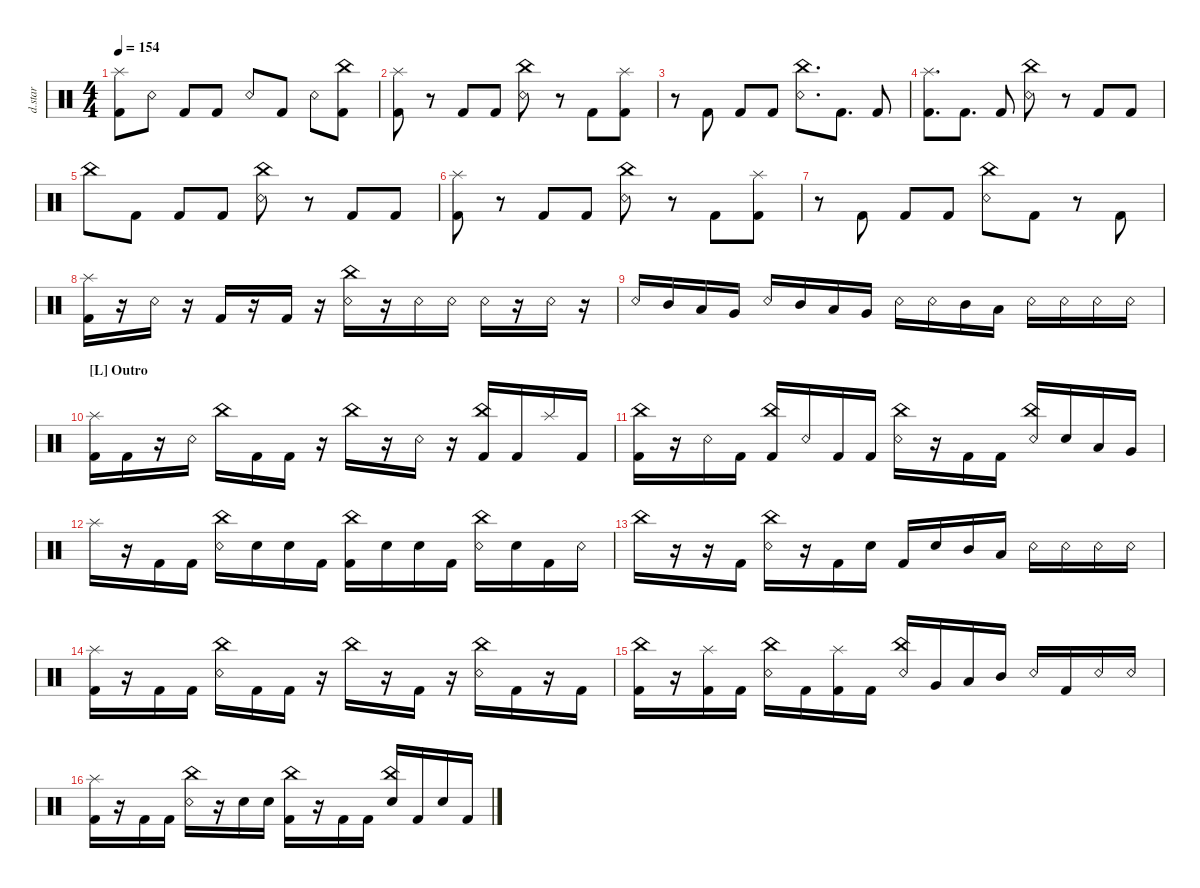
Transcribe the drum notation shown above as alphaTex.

\defaultSystemsLayout 4
\hideDynamics
\bracketExtendMode nobrackets
\otherSystemsTrackNameOrientation horizontal
\track ("Drumkit Star" "d.star") {instrument percussion}
\staff {score}
\articulation defaults
\ts (4 4)
\tempo 154
\clef neutral
\ks c
("Kick (hit) 2" "Splash (hit)").8{dy ff beam Down} "Snare (rim shot)".8{beam Down} "Kick (hit) 2".8{beam Up} "Kick (hit) 2".8{beam Up} "Snare (rim shot)".8{beam Up} "Kick (hit) 2".8{beam Up} "Snare (rim shot)".8{beam Down} ("Kick (hit) 2" "China (hit)").8{beam Down} |
("Kick (hit) 2" "Splash (hit)").8{beam Down} r.8{beam Down} "Kick (hit) 2".8{beam Up} "Kick (hit) 2".8{beam Up} ("Snare (rim shot)" "China (hit)").8{beam Down} r.8{beam Down} "Kick (hit) 2".8{beam Down} ("Kick (hit) 2" "Splash (hit)").8{beam Down} |
r.8{beam Down} "Kick (hit) 2".8{beam Up} "Kick (hit) 2".8{beam Up} "Kick (hit) 2".8{beam Up} ("Snare (rim shot)" "China (hit)").8{d beam Down} "Kick (hit) 2".8{d beam Down} "Kick (hit) 2".8{beam Up} |
("Kick (hit) 2" "Splash (hit)").8{d beam Down} "Kick (hit) 2".8{d beam Down} "Kick (hit) 2".8{beam Up} ("Snare (rim shot)" "China (hit)").8{beam Down} r.8{beam Down} "Kick (hit) 2".8{beam Up} "Kick (hit) 2".8{beam Up} |
"China (hit)".8{beam Down} "Kick (hit) 2".8{beam Down} "Kick (hit) 2".8{beam Up} "Kick (hit) 2".8{beam Up} ("Snare (rim shot)" "China (hit)").8{beam Down} r.8{beam Down} "Kick (hit) 2".8{beam Up} "Kick (hit) 2".8{beam Up} |
("Kick (hit) 2" "Splash (hit)").8{beam Down} r.8{beam Down} "Kick (hit) 2".8{beam Up} "Kick (hit) 2".8{beam Up} ("Snare (rim shot)" "China (hit)").8{beam Down} r.8{beam Down} "Kick (hit) 2".8{beam Down} ("Kick (hit) 2" "Splash (hit)").8{beam Down} |
r.8{beam Down} "Kick (hit) 2".8{beam Up} "Kick (hit) 2".8{beam Up} "Kick (hit) 2".8{beam Up} ("Snare (rim shot)" "China (hit)").8{beam Down} "Kick (hit) 2".8{beam Down} r.8{beam Down} "Kick (hit) 2".8{beam Up} |
("Kick (hit) 2" "Splash (hit)").16{beam Down} r.16{beam Down} "Snare (rim shot)".16{beam Down} r.16{beam Down} "Kick (hit) 2".16{beam Up} r.16{beam Up} "Kick (hit) 2".16{beam Up} r.16{beam Up} ("Snare (rim shot)" "China (hit)").16{beam Down} r.16{beam Down} "Snare (rim shot)".16{beam Down} "Snare (rim shot)".16{beam Down} "Snare (rim shot)".16{beam Down} r.16{beam Down} "Snare (rim shot)".16{beam Down} r.16{beam Down} |
"Snare (rim shot)".16{beam Up} "Mid Tom (hit)".16{beam Up} "Low Tom (hit)".16{beam Up} "Very Low Tom (hit)".16{beam Up} "Snare (rim shot)".16{beam Up} "Mid Tom (hit)".16{beam Up} "Low Tom (hit)".16{beam Up} "Very Low Tom (hit)".16{beam Up} "Snare (rim shot)".16{beam Down} "Snare (rim shot)".16{beam Down} "Mid Tom (hit)".16{beam Down} "Low Tom (hit)".16{beam Down} "Snare (rim shot)".16{beam Down} "Snare (rim shot)".16{beam Down} "Snare (rim shot)".16{beam Down} "Snare (rim shot)".16{beam Down} |
\section ("L" "Outro")
("Kick (hit) 2" "Splash (hit)").16{beam Down} "Kick (hit) 2".16{beam Down} r.16{beam Down} "Snare (rim shot)".16{beam Down} "China (hit)".16{beam Down} "Kick (hit) 2".16{beam Down} "Kick (hit) 2".16{beam Down} r.16{beam Down} "China (hit)".16{beam Down} r.16{beam Down} "Snare (rim shot)".16{beam Down} r.16{beam Down} ("Kick (hit) 2" "China (hit)").16{beam Up} "Kick (hit) 2".16{beam Up} "Splash (hit)".16{beam Up} "Kick (hit) 2".16{beam Up} |
("China (hit)" "Kick (hit) 2").16{beam Down} r.16{beam Down} "Snare (rim shot)".16{beam Down} "Kick (hit) 2".16{beam Down} ("Kick (hit) 2" "China (hit)").16{beam Up} "Snare (rim shot)".16{beam Up} "Kick (hit) 2".16{beam Up} "Kick (hit) 2".16{beam Up} ("Snare (rim shot)" "China (hit)").16{beam Down} r.16{beam Down} "Kick (hit) 2".16{beam Down} "Kick (hit) 2".16{beam Down} ("Snare (rim shot)" "China (hit)").16{beam Up} "Snare (hit) 2".16{beam Up} "Low Tom (hit)".16{beam Up} "Very Low Tom (hit)".16{beam Up} |
"Splash (hit)".16{beam Down} r.16{beam Down} "Kick (hit) 2".16{beam Down} "Kick (hit) 2".16{beam Down} ("Snare (rim shot)" "China (hit)").16{beam Down} "Snare (hit) 2".16{dy mp beam Down} "Snare (hit) 2".16{beam Down} "Kick (hit) 2".16{dy ff beam Down} ("Kick (hit) 2" "China (hit)").16{beam Down} "Snare (hit) 2".16{dy mp beam Down} "Snare (hit) 2".16{beam Down} "Kick (hit) 2".16{dy ff beam Down} ("Snare (rim shot)" "China (hit)").16{beam Down} "Snare (hit) 2".16{dy mp beam Down} "Kick (hit) 2".16{dy ff beam Down} "Snare (rim shot)".16{beam Down} |
"China (hit)".16{beam Down} r.16{beam Down} r.16{beam Down} "Kick (hit) 2".16{beam Down} ("Snare (rim shot)" "China (hit)").16{beam Down} r.16{beam Down} "Kick (hit) 2".16{beam Down} "Snare (hit) 2".16{dy mp beam Down} "Kick (hit) 2".16{dy ff beam Up} "Snare (hit) 2".16{dy mp beam Up} "Mid Tom (hit)".16{dy ff beam Up} "Low Tom (hit)".16{beam Up} "Snare (rim shot)".16{beam Down} "Snare (rim shot)".16{beam Down} "Snare (rim shot)".16{beam Down} "Snare (rim shot)".16{beam Down} |
("Kick (hit) 2" "Splash (hit)").16{beam Down} r.16{beam Down} "Kick (hit) 2".16{beam Down} "Kick (hit) 2".16{beam Down} ("Snare (rim shot)" "China (hit)").16{beam Down} "Kick (hit) 2".16{beam Down} "Kick (hit) 2".16{beam Down} r.16{beam Down} "China (hit)".16{beam Down} r.16{beam Down} "Kick (hit) 2".16{beam Down} r.16{beam Down} ("Snare (rim shot)" "China (hit)").16{beam Down} "Kick (hit) 2".16{beam Down} r.16{beam Down} "Kick (hit) 2".16{beam Down} |
("Kick (hit) 2" "China (hit)").16{beam Down} r.16{beam Down} ("Kick (hit) 2" "Splash (hit)").16{beam Down} "Kick (hit) 2".16{beam Down} ("Snare (rim shot)" "China (hit)").16{beam Down} "Kick (hit) 2".16{beam Down} ("Kick (hit) 2" "Splash (hit)").16{beam Down} "Kick (hit) 2".16{beam Down} ("Snare (rim shot)" "China (hit)").16{beam Up} "Very Low Tom (hit)".16{beam Up} "Low Tom (hit)".16{beam Up} "Mid Tom (hit)".16{beam Up} "Snare (rim shot)".16{beam Up} "Kick (hit) 2".16{beam Up} "Snare (rim shot)".16{beam Up} "Snare (rim shot)".16{beam Up} |
("Kick (hit) 2" "Splash (hit)").16{beam Down} r.16{beam Down} "Kick (hit) 2".16{beam Down} "Kick (hit) 2".16{beam Down} ("Snare (rim shot)" "China (hit)").16{beam Down} r.16{beam Down} "Snare (hit) 2".16{dy mp beam Down} "Snare (hit) 2".16{beam Down} ("Kick (hit) 2" "China (hit)").16{dy ff beam Down} r.16{beam Down} "Kick (hit) 2".16{beam Down} "Kick (hit) 2".16{beam Down} ("Snare (hit) 2" "China (hit)").16{beam Up} "Kick (hit) 2".16{beam Up} "Snare (hit) 2".16{dy mp beam Up} "Kick (hit) 2".16{dy ff beam Up}
